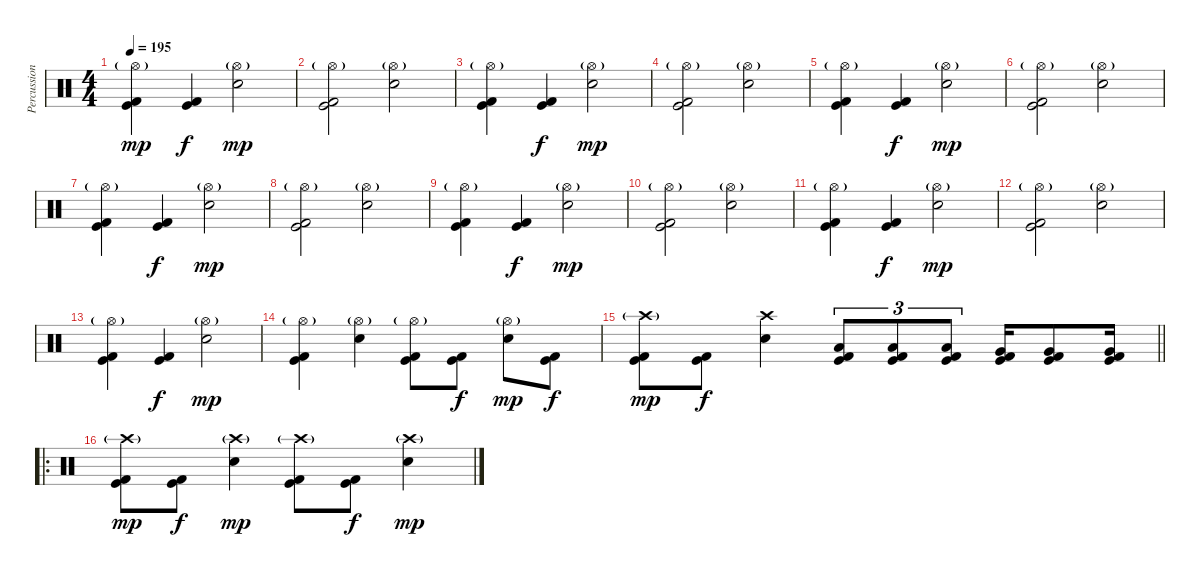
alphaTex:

\track ("Percussion" "Percussion") {instrument percussion}
\staff {score}
\articulation defaults
\ts (4 4)
\tempo 195
\clef neutral
\ks c
("Hi-Hat (open)"{g} "Kick (hit) 2" "Kick (hit)").4{dy mp} ("Kick (hit) 2" "Kick (hit)").4{dy f} ("Hi-Hat (open)"{g} "Electric Snare (hit)").2{dy mp} |
("Hi-Hat (open)"{g} "Kick (hit) 2" "Kick (hit)").2 ("Hi-Hat (open)"{g} "Electric Snare (hit)").2 |
("Hi-Hat (open)"{g} "Kick (hit) 2" "Kick (hit)").4 ("Kick (hit) 2" "Kick (hit)").4{dy f} ("Hi-Hat (open)"{g} "Electric Snare (hit)").2{dy mp} |
("Hi-Hat (open)"{g} "Kick (hit) 2" "Kick (hit)").2 ("Hi-Hat (open)"{g} "Electric Snare (hit)").2 |
("Hi-Hat (open)"{g} "Kick (hit) 2" "Kick (hit)").4 ("Kick (hit) 2" "Kick (hit)").4{dy f} ("Hi-Hat (open)"{g} "Electric Snare (hit)").2{dy mp} |
("Hi-Hat (open)"{g} "Kick (hit) 2" "Kick (hit)").2 ("Hi-Hat (open)"{g} "Electric Snare (hit)").2 |
("Hi-Hat (open)"{g} "Kick (hit) 2" "Kick (hit)").4 ("Kick (hit) 2" "Kick (hit)").4{dy f} ("Hi-Hat (open)"{g} "Electric Snare (hit)").2{dy mp} |
("Hi-Hat (open)"{g} "Kick (hit) 2" "Kick (hit)").2 ("Hi-Hat (open)"{g} "Electric Snare (hit)").2 |
("Hi-Hat (open)"{g} "Kick (hit) 2" "Kick (hit)").4 ("Kick (hit) 2" "Kick (hit)").4{dy f} ("Hi-Hat (open)"{g} "Electric Snare (hit)").2{dy mp} |
("Hi-Hat (open)"{g} "Kick (hit) 2" "Kick (hit)").2 ("Hi-Hat (open)"{g} "Electric Snare (hit)").2 |
("Hi-Hat (open)"{g} "Kick (hit) 2" "Kick (hit)").4 ("Kick (hit) 2" "Kick (hit)").4{dy f} ("Hi-Hat (open)"{g} "Electric Snare (hit)").2{dy mp} |
("Hi-Hat (open)"{g} "Kick (hit) 2" "Kick (hit)").2 ("Hi-Hat (open)"{g} "Electric Snare (hit)").2 |
("Hi-Hat (open)"{g} "Kick (hit) 2" "Kick (hit)").4 ("Kick (hit) 2" "Kick (hit)").4{dy f} ("Hi-Hat (open)"{g} "Electric Snare (hit)").2{dy mp} |
("Hi-Hat (open)"{g} "Kick (hit) 2" "Kick (hit)").4 ("Hi-Hat (open)"{g} "Electric Snare (hit)").4 ("Hi-Hat (open)"{g} "Kick (hit) 2" "Kick (hit)").8 ("Kick (hit) 2" "Kick (hit)").8{dy f} ("Hi-Hat (open)"{g} "Electric Snare (hit)").8{dy mp} ("Kick (hit) 2" "Kick (hit)").8{dy f} |
\barLineRight lightlight
("Crash high (hit)"{g} "Kick (hit)" "Kick (hit) 2").8{dy mp} ("Kick (hit)" "Kick (hit) 2").8{dy f} ("Crash high (hit)" "Electric Snare (hit)").4 ("Low Tom (hit)" "Kick (hit)" "Kick (hit) 2").8{tu (3 2)} ("Low Tom (hit)" "Kick (hit)" "Kick (hit) 2").8{tu (3 2)} ("Low Tom (hit)" "Kick (hit)" "Kick (hit) 2").8{tu (3 2)} ("Very Low Tom (hit)" "Kick (hit)" "Kick (hit) 2").16 ("Very Low Tom (hit)" "Kick (hit)" "Kick (hit) 2").8 ("Very Low Tom (hit)" "Kick (hit)" "Kick (hit) 2").16 |
\ro
("Crash high (hit)"{g} "Kick (hit) 2" "Kick (hit)").8{dy mp} ("Kick (hit) 2" "Kick (hit)").8{dy f} ("Crash high (hit)"{g} "Electric Snare (hit)").4{dy mp} ("Crash high (hit)"{g} "Kick (hit) 2" "Kick (hit)").8 ("Kick (hit) 2" "Kick (hit)").8{dy f} ("Crash high (hit)"{g} "Electric Snare (hit)").4{dy mp}
